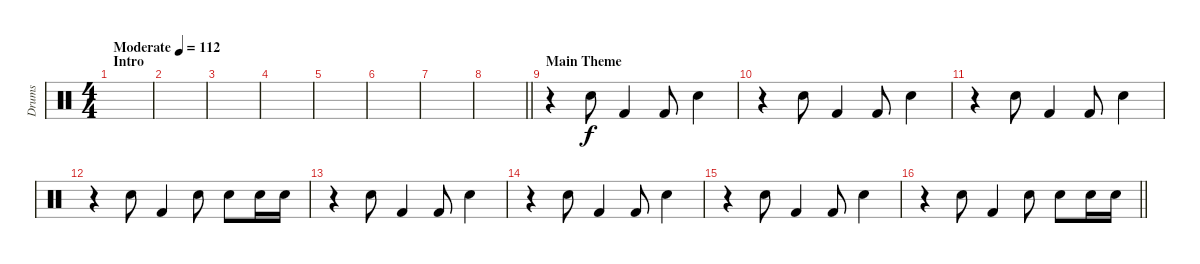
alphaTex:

\track ("Drums" "Drums") {instrument percussion}
\staff {score}
\articulation defaults
\ts (4 4)
\section ("" "Intro")
\tempo (112 "Moderate")
\clef neutral
\ks c
|
|
|
|
|
|
|
\barLineRight lightlight
|
\section ("" "Main Theme")
r.4 "Electric Snare (hit)".8 "Kick (hit) 2".4 "Kick (hit) 2".8 "Electric Snare (hit)".4 |
r.4 "Electric Snare (hit)".8 "Kick (hit) 2".4 "Kick (hit) 2".8 "Electric Snare (hit)".4 |
r.4 "Electric Snare (hit)".8 "Kick (hit) 2".4 "Kick (hit) 2".8 "Electric Snare (hit)".4 |
r.4 "Electric Snare (hit)".8 "Kick (hit) 2".4 "Electric Snare (hit)".8 "Electric Snare (hit)".8 "Electric Snare (hit)".16 "Electric Snare (hit)".16 |
r.4 "Electric Snare (hit)".8 "Kick (hit) 2".4 "Kick (hit) 2".8 "Electric Snare (hit)".4 |
r.4 "Electric Snare (hit)".8 "Kick (hit) 2".4 "Kick (hit) 2".8 "Electric Snare (hit)".4 |
r.4 "Electric Snare (hit)".8 "Kick (hit) 2".4 "Kick (hit) 2".8 "Electric Snare (hit)".4 |
\barLineRight lightlight
r.4 "Electric Snare (hit)".8 "Kick (hit) 2".4 "Electric Snare (hit)".8 "Electric Snare (hit)".8 "Electric Snare (hit)".16 "Electric Snare (hit)".16
